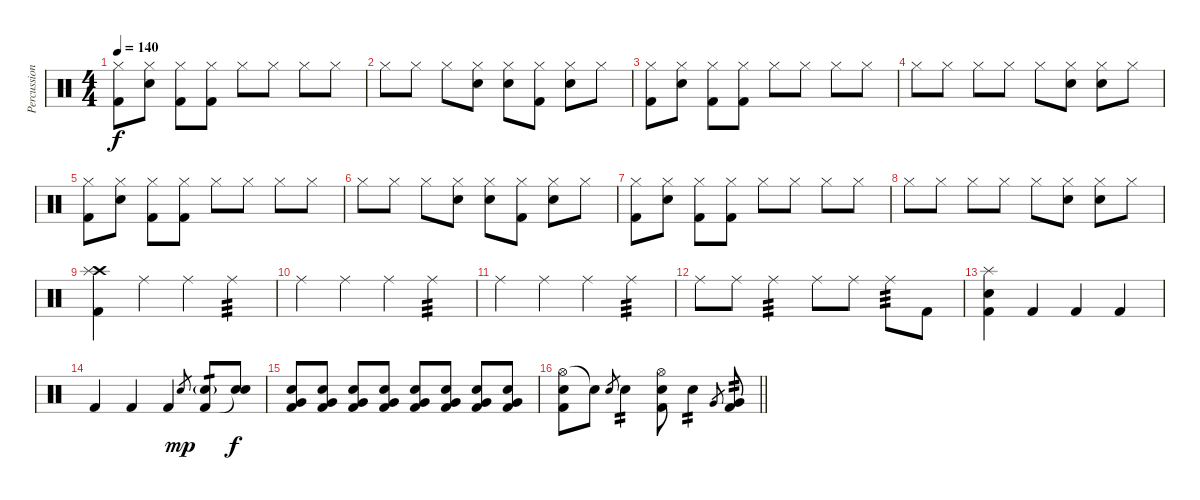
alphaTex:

\track ("Percussion" "Percussion") {instrument percussion}
\staff {score}
\articulation defaults
\ts (4 4)
\tempo 140
\clef neutral
\ks c
("Hi-Hat (closed)" "Kick (hit) 2").8{dy f} ("Hi-Hat (closed)" "Electric Snare (hit)").8 ("Hi-Hat (closed)" "Kick (hit) 2").8 ("Hi-Hat (closed)" "Kick (hit) 2").8 "Hi-Hat (closed)".8 "Hi-Hat (closed)".8 "Hi-Hat (closed)".8 "Hi-Hat (closed)".8 |
"Hi-Hat (closed)".8 "Hi-Hat (closed)".8 "Hi-Hat (closed)".8 ("Hi-Hat (closed)" "Electric Snare (hit)").8 ("Hi-Hat (closed)" "Electric Snare (hit)").8 ("Hi-Hat (closed)" "Kick (hit) 2").8 ("Hi-Hat (closed)" "Electric Snare (hit)").8 "Hi-Hat (closed)".8 |
("Hi-Hat (closed)" "Kick (hit) 2").8 ("Hi-Hat (closed)" "Electric Snare (hit)").8 ("Hi-Hat (closed)" "Kick (hit) 2").8 ("Hi-Hat (closed)" "Kick (hit) 2").8 "Hi-Hat (closed)".8 "Hi-Hat (closed)".8 "Hi-Hat (closed)".8 "Hi-Hat (closed)".8 |
"Hi-Hat (closed)".8 "Hi-Hat (closed)".8 "Hi-Hat (closed)".8 "Hi-Hat (closed)".8 "Hi-Hat (closed)".8 ("Hi-Hat (closed)" "Electric Snare (hit)").8 ("Hi-Hat (closed)" "Electric Snare (hit)").8 "Hi-Hat (closed)".8 |
("Hi-Hat (closed)" "Kick (hit) 2").8 ("Hi-Hat (closed)" "Electric Snare (hit)").8 ("Hi-Hat (closed)" "Kick (hit) 2").8 ("Hi-Hat (closed)" "Kick (hit) 2").8 "Hi-Hat (closed)".8 "Hi-Hat (closed)".8 "Hi-Hat (closed)".8 "Hi-Hat (closed)".8 |
"Hi-Hat (closed)".8 "Hi-Hat (closed)".8 "Hi-Hat (closed)".8 ("Hi-Hat (closed)" "Electric Snare (hit)").8 ("Hi-Hat (closed)" "Electric Snare (hit)").8 ("Hi-Hat (closed)" "Kick (hit) 2").8 ("Hi-Hat (closed)" "Electric Snare (hit)").8 "Hi-Hat (closed)".8 |
("Hi-Hat (closed)" "Kick (hit) 2").8 ("Hi-Hat (closed)" "Electric Snare (hit)").8 ("Hi-Hat (closed)" "Kick (hit) 2").8 ("Hi-Hat (closed)" "Kick (hit) 2").8 "Hi-Hat (closed)".8 "Hi-Hat (closed)".8 "Hi-Hat (closed)".8 "Hi-Hat (closed)".8 |
"Hi-Hat (closed)".8 "Hi-Hat (closed)".8 "Hi-Hat (closed)".8 "Hi-Hat (closed)".8 "Hi-Hat (closed)".8 ("Hi-Hat (closed)" "Electric Snare (hit)").8 ("Hi-Hat (closed)" "Electric Snare (hit)").8 "Hi-Hat (closed)".8 |
("Crash high (hit)" "Splash (hit)" "Kick (hit) 2").4 "Ride (middle)".4 "Ride (middle)".4 "Ride (middle)".4{tp 3} |
"Ride (middle)".4 "Ride (middle)".4 "Ride (middle)".4 "Ride (middle)".4{tp 3} |
"Ride (middle)".4 "Ride (middle)".4 "Ride (middle)".4 "Ride (middle)".4{tp 3} |
"Ride (middle)".8 "Ride (middle)".8 "Ride (middle)".4{tp 3} "Ride (middle)".8 "Ride (middle)".8 "Ride (middle)".8{tp 3} "Kick (hit) 2".8 |
("Splash (hit)" "Electric Snare (hit)" "Kick (hit) 2").4 "Kick (hit) 2".4 "Kick (hit) 2".4 "Kick (hit) 2".4 |
"Kick (hit) 2".4 "Kick (hit) 2".4 "Kick (hit) 2".4 "Electric Snare (hit)".8{gr dy mp} ("Electric Snare (hit)"{g} "Kick (hit) 2").8{tp 1} ("Electric Snare (hit)" "Snare (hit)"{t}).8{dy f} |
("Electric Snare (hit)" "Very Low Tom (hit)" "Kick (hit) 2").8 ("Electric Snare (hit)" "Very Low Tom (hit)" "Kick (hit) 2").8 ("Electric Snare (hit)" "Very Low Tom (hit)" "Kick (hit) 2").8 ("Electric Snare (hit)" "Very Low Tom (hit)" "Kick (hit) 2").8 ("Electric Snare (hit)" "Very Low Tom (hit)" "Kick (hit) 2").8 ("Electric Snare (hit)" "Very Low Tom (hit)" "Kick (hit) 2").8 ("Electric Snare (hit)" "Very Low Tom (hit)" "Kick (hit) 2").8 ("Electric Snare (hit)" "Very Low Tom (hit)" "Kick (hit) 2").8 |
\barLineRight lightlight
("Hi-Hat (open)" "Electric Snare (hit)" "Kick (hit) 2").8 "Snare (hit)"{t}.8 "Electric Snare (hit)".8{gr} "Electric Snare (hit)".4{tp 2} ("Hi-Hat (open)" "Electric Snare (hit)" "Kick (hit) 2").8 "Electric Snare (hit)".4{tp 2} "Very Low Tom (hit)".8{gr} ("Very Low Tom (hit)" "Kick (hit) 2").8{tp 2}
